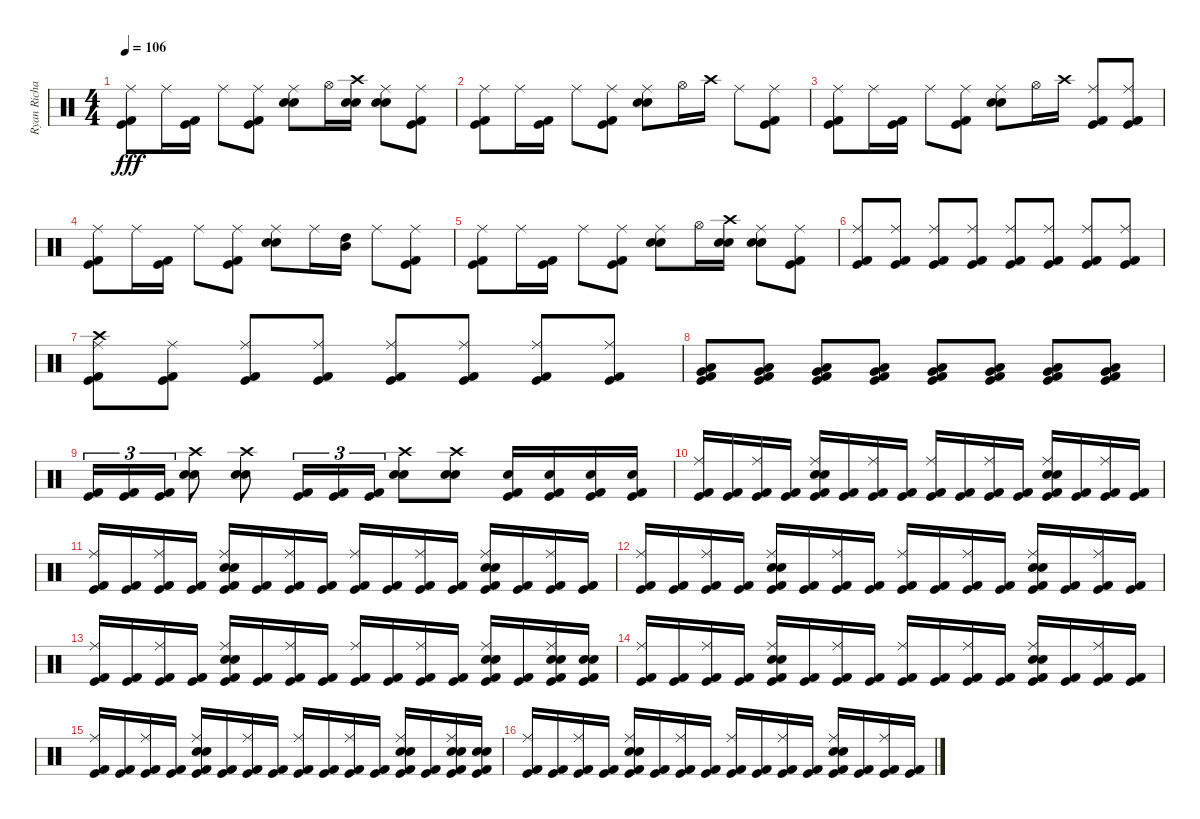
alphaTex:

\track ("Ryan Richards" "Ryan Richa") {instrument percussion}
\staff {score}
\articulation defaults
\ts (4 4)
\tempo 106
\clef neutral
\ks c
("Kick (hit)" "Ride (middle)" "Kick (hit) 2").8{dy fff} "Ride (middle)".16 ("Kick (hit)" "Kick (hit) 2").16 "Ride (middle)".8 ("Kick (hit)" "Ride (middle)" "Kick (hit) 2").8 ("Ride (middle)" "Snare (hit) 2" "Electric Snare (hit)").8 "Hi-Hat (open)".16 ("Crash high (hit)" "Snare (hit) 2" "Electric Snare (hit)").16 ("Ride (middle)" "Snare (hit) 2" "Electric Snare (hit)").8 ("Kick (hit)" "Ride (middle)" "Kick (hit) 2").8 |
("Kick (hit)" "Ride (middle)" "Kick (hit) 2").8 "Ride (middle)".16 ("Kick (hit)" "Kick (hit) 2").16 "Ride (middle)".8 ("Kick (hit)" "Ride (middle)" "Kick (hit) 2").8 ("Ride (middle)" "Snare (hit) 2" "Electric Snare (hit)").8 "Hi-Hat (open)".16 "Crash high (hit)".16 "Ride (middle)".8 ("Kick (hit)" "Ride (middle)" "Kick (hit) 2").8 |
("Kick (hit)" "Ride (middle)" "Kick (hit) 2").8 "Ride (middle)".16 ("Kick (hit)" "Kick (hit) 2").16 "Ride (middle)".8 ("Kick (hit)" "Ride (middle)" "Kick (hit) 2").8 ("Ride (middle)" "Snare (hit) 2" "Electric Snare (hit)").8 "Hi-Hat (open)".16 "Crash high (hit)".16 ("Kick (hit)" "Ride (middle)" "Kick (hit) 2").8 ("Kick (hit)" "Ride (middle)" "Kick (hit) 2").8 |
("Kick (hit)" "Ride (middle)" "Kick (hit) 2").8 "Ride (middle)".16 ("Kick (hit)" "Kick (hit) 2").16 "Ride (middle)".8 ("Kick (hit)" "Ride (middle)" "Kick (hit) 2").8 ("Ride (middle)" "Snare (hit) 2" "Electric Snare (hit)").8 "Ride (middle)".16 ("High Tom (hit)" "Mid Tom (hit)").16 "Ride (middle)".8 ("Kick (hit)" "Ride (middle)" "Kick (hit) 2").8 |
("Kick (hit)" "Ride (middle)" "Kick (hit) 2").8 "Ride (middle)".16 ("Kick (hit)" "Kick (hit) 2").16 "Ride (middle)".8 ("Kick (hit)" "Ride (middle)" "Kick (hit) 2").8 ("Ride (middle)" "Snare (hit) 2" "Electric Snare (hit)").8 "Hi-Hat (open)".16 ("Crash high (hit)" "Snare (hit) 2" "Electric Snare (hit)").16 ("Ride (middle)" "Snare (hit) 2" "Electric Snare (hit)").8 ("Kick (hit)" "Ride (middle)" "Kick (hit) 2").8 |
("Kick (hit)" "Ride (middle)" "Kick (hit) 2").8 ("Kick (hit)" "Ride (middle)" "Kick (hit) 2").8 ("Kick (hit)" "Ride (middle)" "Kick (hit) 2").8 ("Kick (hit)" "Ride (middle)" "Kick (hit) 2").8 ("Kick (hit)" "Ride (middle)" "Kick (hit) 2").8 ("Kick (hit)" "Ride (middle)" "Kick (hit) 2").8 ("Kick (hit)" "Ride (middle)" "Kick (hit) 2").8 ("Kick (hit)" "Ride (middle)" "Kick (hit) 2").8 |
("Kick (hit)" "Ride (middle)" "Crash high (hit)" "Kick (hit) 2").8 ("Kick (hit)" "Ride (middle)" "Kick (hit) 2").8 ("Kick (hit)" "Ride (middle)" "Kick (hit) 2").8 ("Kick (hit)" "Ride (middle)" "Kick (hit) 2").8 ("Kick (hit)" "Ride (middle)" "Kick (hit) 2").8 ("Kick (hit)" "Ride (middle)" "Kick (hit) 2").8 ("Kick (hit)" "Ride (middle)" "Kick (hit) 2").8 ("Kick (hit)" "Ride (middle)" "Kick (hit) 2").8 |
("Kick (hit)" "Very Low Tom (hit)" "Low Floor Tom (hit)" "Kick (hit) 2").8 ("Kick (hit)" "Very Low Tom (hit)" "Low Floor Tom (hit)" "Kick (hit) 2").8 ("Kick (hit)" "Very Low Tom (hit)" "Low Floor Tom (hit)" "Kick (hit) 2").8 ("Kick (hit)" "Very Low Tom (hit)" "Low Floor Tom (hit)" "Kick (hit) 2").8 ("Kick (hit)" "Very Low Tom (hit)" "Low Floor Tom (hit)" "Kick (hit) 2").8 ("Kick (hit)" "Very Low Tom (hit)" "Low Floor Tom (hit)" "Kick (hit) 2").8 ("Kick (hit)" "Very Low Tom (hit)" "Low Floor Tom (hit)" "Kick (hit) 2").8 ("Kick (hit)" "Very Low Tom (hit)" "Low Floor Tom (hit)" "Kick (hit) 2").8 |
("Kick (hit)" "Kick (hit) 2").16{tu (3 2)} ("Kick (hit)" "Kick (hit) 2").16{tu (3 2)} ("Kick (hit)" "Kick (hit) 2").16{tu (3 2)} ("Crash high (hit)" "Electric Snare (hit)" "Snare (hit) 2").8 ("Crash high (hit)" "Electric Snare (hit)" "Snare (hit) 2").8 ("Kick (hit)" "Kick (hit) 2").16{tu (3 2)} ("Kick (hit)" "Kick (hit) 2").16{tu (3 2)} ("Kick (hit)" "Kick (hit) 2").16{tu (3 2)} ("Crash high (hit)" "Electric Snare (hit)" "Snare (hit) 2").8 ("Crash high (hit)" "Electric Snare (hit)" "Snare (hit) 2").8 ("Kick (hit)" "Snare (hit) 2" "Kick (hit) 2").16 ("Kick (hit)" "Electric Snare (hit)" "Kick (hit) 2").16 ("Kick (hit)" "Snare (hit) 2" "Kick (hit) 2").16 ("Kick (hit)" "Electric Snare (hit)" "Kick (hit) 2").16 |
("Kick (hit)" "Ride (middle)" "Kick (hit) 2").16 ("Kick (hit)" "Kick (hit) 2").16 ("Kick (hit)" "Ride (middle)" "Kick (hit) 2").16 ("Kick (hit)" "Kick (hit) 2").16 ("Kick (hit)" "Ride (middle)" "Snare (hit) 2" "Electric Snare (hit)" "Kick (hit) 2").16 ("Kick (hit)" "Kick (hit) 2").16 ("Kick (hit)" "Ride (middle)" "Kick (hit) 2").16 ("Kick (hit)" "Kick (hit) 2").16 ("Kick (hit)" "Ride (middle)" "Kick (hit) 2").16 ("Kick (hit)" "Kick (hit) 2").16 ("Kick (hit)" "Ride (middle)" "Kick (hit) 2").16 ("Kick (hit)" "Kick (hit) 2").16 ("Kick (hit)" "Ride (middle)" "Snare (hit) 2" "Electric Snare (hit)" "Kick (hit) 2").16 ("Kick (hit)" "Kick (hit) 2").16 ("Kick (hit)" "Ride (middle)" "Kick (hit) 2").16 ("Kick (hit)" "Kick (hit) 2").16 |
("Kick (hit)" "Ride (middle)" "Kick (hit) 2").16 ("Kick (hit)" "Kick (hit) 2").16 ("Kick (hit)" "Ride (middle)" "Kick (hit) 2").16 ("Kick (hit)" "Kick (hit) 2").16 ("Kick (hit)" "Ride (middle)" "Snare (hit) 2" "Electric Snare (hit)" "Kick (hit) 2").16 ("Kick (hit)" "Kick (hit) 2").16 ("Kick (hit)" "Ride (middle)" "Kick (hit) 2").16 ("Kick (hit)" "Kick (hit) 2").16 ("Kick (hit)" "Ride (middle)" "Kick (hit) 2").16 ("Kick (hit)" "Kick (hit) 2").16 ("Kick (hit)" "Ride (middle)" "Kick (hit) 2").16 ("Kick (hit)" "Kick (hit) 2").16 ("Kick (hit)" "Ride (middle)" "Snare (hit) 2" "Electric Snare (hit)" "Kick (hit) 2").16 ("Kick (hit)" "Kick (hit) 2").16 ("Kick (hit)" "Ride (middle)" "Kick (hit) 2").16 ("Kick (hit)" "Kick (hit) 2").16 |
("Kick (hit)" "Ride (middle)" "Kick (hit) 2").16 ("Kick (hit)" "Kick (hit) 2").16 ("Kick (hit)" "Ride (middle)" "Kick (hit) 2").16 ("Kick (hit)" "Kick (hit) 2").16 ("Kick (hit)" "Ride (middle)" "Snare (hit) 2" "Electric Snare (hit)" "Kick (hit) 2").16 ("Kick (hit)" "Kick (hit) 2").16 ("Kick (hit)" "Ride (middle)" "Kick (hit) 2").16 ("Kick (hit)" "Kick (hit) 2").16 ("Kick (hit)" "Ride (middle)" "Kick (hit) 2").16 ("Kick (hit)" "Kick (hit) 2").16 ("Kick (hit)" "Ride (middle)" "Kick (hit) 2").16 ("Kick (hit)" "Kick (hit) 2").16 ("Kick (hit)" "Ride (middle)" "Snare (hit) 2" "Electric Snare (hit)" "Kick (hit) 2").16 ("Kick (hit)" "Kick (hit) 2").16 ("Kick (hit)" "Ride (middle)" "Kick (hit) 2").16 ("Kick (hit)" "Kick (hit) 2").16 |
("Kick (hit)" "Ride (middle)" "Kick (hit) 2").16 ("Kick (hit)" "Kick (hit) 2").16 ("Kick (hit)" "Ride (middle)" "Kick (hit) 2").16 ("Kick (hit)" "Kick (hit) 2").16 ("Kick (hit)" "Ride (middle)" "Snare (hit) 2" "Electric Snare (hit)" "Kick (hit) 2").16 ("Kick (hit)" "Kick (hit) 2").16 ("Kick (hit)" "Ride (middle)" "Kick (hit) 2").16 ("Kick (hit)" "Kick (hit) 2").16 ("Kick (hit)" "Ride (middle)" "Kick (hit) 2").16 ("Kick (hit)" "Kick (hit) 2").16 ("Kick (hit)" "Ride (middle)" "Kick (hit) 2").16 ("Kick (hit)" "Kick (hit) 2").16 ("Kick (hit)" "Ride (middle)" "Snare (hit) 2" "Electric Snare (hit)" "Kick (hit) 2").16 ("Kick (hit)" "Kick (hit) 2").16 ("Kick (hit)" "Ride (middle)" "Snare (hit) 2" "Electric Snare (hit)" "Kick (hit) 2").16 ("Kick (hit)" "Snare (hit) 2" "Electric Snare (hit)" "Kick (hit) 2").16 |
("Kick (hit)" "Ride (middle)" "Kick (hit) 2").16 ("Kick (hit)" "Kick (hit) 2").16 ("Kick (hit)" "Ride (middle)" "Kick (hit) 2").16 ("Kick (hit)" "Kick (hit) 2").16 ("Kick (hit)" "Ride (middle)" "Snare (hit) 2" "Electric Snare (hit)" "Kick (hit) 2").16 ("Kick (hit)" "Kick (hit) 2").16 ("Kick (hit)" "Ride (middle)" "Kick (hit) 2").16 ("Kick (hit)" "Kick (hit) 2").16 ("Kick (hit)" "Ride (middle)" "Kick (hit) 2").16 ("Kick (hit)" "Kick (hit) 2").16 ("Kick (hit)" "Ride (middle)" "Kick (hit) 2").16 ("Kick (hit)" "Kick (hit) 2").16 ("Kick (hit)" "Ride (middle)" "Snare (hit) 2" "Electric Snare (hit)" "Kick (hit) 2").16 ("Kick (hit)" "Kick (hit) 2").16 ("Kick (hit)" "Ride (middle)" "Kick (hit) 2").16 ("Kick (hit)" "Kick (hit) 2").16 |
("Kick (hit)" "Ride (middle)" "Kick (hit) 2").16 ("Kick (hit)" "Kick (hit) 2").16 ("Kick (hit)" "Ride (middle)" "Kick (hit) 2").16 ("Kick (hit)" "Kick (hit) 2").16 ("Kick (hit)" "Ride (middle)" "Snare (hit) 2" "Electric Snare (hit)" "Kick (hit) 2").16 ("Kick (hit)" "Kick (hit) 2").16 ("Kick (hit)" "Ride (middle)" "Kick (hit) 2").16 ("Kick (hit)" "Kick (hit) 2").16 ("Kick (hit)" "Ride (middle)" "Kick (hit) 2").16 ("Kick (hit)" "Kick (hit) 2").16 ("Kick (hit)" "Ride (middle)" "Kick (hit) 2").16 ("Kick (hit)" "Kick (hit) 2").16 ("Kick (hit)" "Ride (middle)" "Snare (hit) 2" "Electric Snare (hit)" "Kick (hit) 2").16 ("Kick (hit)" "Kick (hit) 2").16 ("Kick (hit)" "Ride (middle)" "Snare (hit) 2" "Electric Snare (hit)" "Kick (hit) 2").16 ("Kick (hit)" "Snare (hit) 2" "Electric Snare (hit)" "Kick (hit) 2").16 |
("Kick (hit)" "Ride (middle)" "Kick (hit) 2").16 ("Kick (hit)" "Kick (hit) 2").16 ("Kick (hit)" "Ride (middle)" "Kick (hit) 2").16 ("Kick (hit)" "Kick (hit) 2").16 ("Kick (hit)" "Ride (middle)" "Snare (hit) 2" "Electric Snare (hit)" "Kick (hit) 2").16 ("Kick (hit)" "Kick (hit) 2").16 ("Kick (hit)" "Ride (middle)" "Kick (hit) 2").16 ("Kick (hit)" "Kick (hit) 2").16 ("Kick (hit)" "Ride (middle)" "Kick (hit) 2").16 ("Kick (hit)" "Kick (hit) 2").16 ("Kick (hit)" "Ride (middle)" "Kick (hit) 2").16 ("Kick (hit)" "Kick (hit) 2").16 ("Kick (hit)" "Ride (middle)" "Snare (hit) 2" "Electric Snare (hit)" "Kick (hit) 2").16 ("Kick (hit)" "Kick (hit) 2").16 ("Kick (hit)" "Ride (middle)" "Kick (hit) 2").16 ("Kick (hit)" "Kick (hit) 2").16
